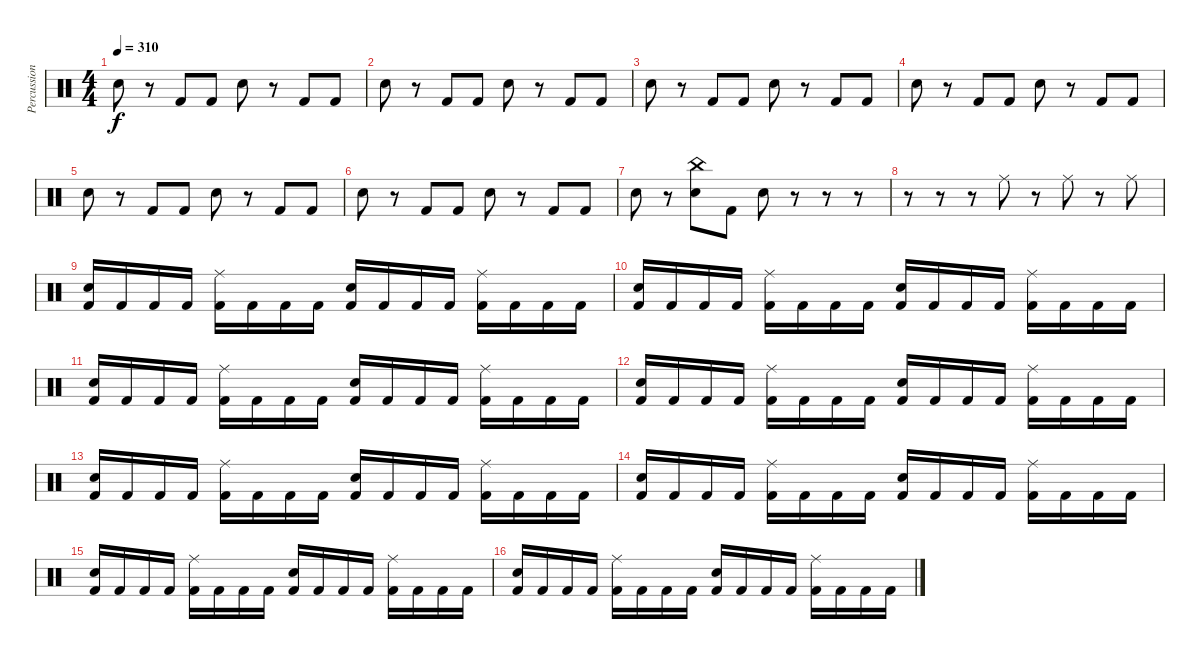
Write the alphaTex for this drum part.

\track ("Percussions" "Percussion") {instrument percussion}
\staff {score}
\articulation defaults
\ts (4 4)
\tempo 310
\clef neutral
\ks c "Snare (hit) 2".8{dy f}
r.8 "Kick (hit) 2".8 "Kick (hit) 2".8 "Snare (hit) 2".8 r.8 "Kick (hit) 2".8 "Kick (hit) 2".8 |
"Snare (hit) 2".8 r.8 "Kick (hit) 2".8 "Kick (hit) 2".8 "Snare (hit) 2".8 r.8 "Kick (hit) 2".8 "Kick (hit) 2".8 |
"Snare (hit) 2".8 r.8 "Kick (hit) 2".8 "Kick (hit) 2".8 "Snare (hit) 2".8 r.8 "Kick (hit) 2".8 "Kick (hit) 2".8 |
"Snare (hit) 2".8 r.8 "Kick (hit) 2".8 "Kick (hit) 2".8 "Snare (hit) 2".8 r.8 "Kick (hit) 2".8 "Kick (hit) 2".8 |
"Snare (hit) 2".8 r.8 "Kick (hit) 2".8 "Kick (hit) 2".8 "Snare (hit) 2".8 r.8 "Kick (hit) 2".8 "Kick (hit) 2".8 |
"Snare (hit) 2".8 r.8 "Kick (hit) 2".8 "Kick (hit) 2".8 "Snare (hit) 2".8 r.8 "Kick (hit) 2".8 "Kick (hit) 2".8 |
"Snare (hit) 2".8 r.8 ("China (hit)" "Snare (hit) 2").8 "Kick (hit) 2".8 "Snare (hit) 2".8 r.8 r.8 r.8 |
r.8 r.8 r.8 "Ride (middle)".8 r.8 "Ride (middle)".8 r.8 "Ride (middle)".8 |
("Snare (hit) 2" "Kick (hit) 2").16 "Kick (hit) 2".16 "Kick (hit) 2".16 "Kick (hit) 2".16 ("Ride (middle)" "Kick (hit) 2").16 "Kick (hit) 2".16 "Kick (hit) 2".16 "Kick (hit) 2".16 ("Snare (hit) 2" "Kick (hit) 2").16 "Kick (hit) 2".16 "Kick (hit) 2".16 "Kick (hit) 2".16 ("Ride (middle)" "Kick (hit) 2").16 "Kick (hit) 2".16 "Kick (hit) 2".16 "Kick (hit) 2".16 |
("Snare (hit) 2" "Kick (hit) 2").16 "Kick (hit) 2".16 "Kick (hit) 2".16 "Kick (hit) 2".16 ("Ride (middle)" "Kick (hit) 2").16 "Kick (hit) 2".16 "Kick (hit) 2".16 "Kick (hit) 2".16 ("Snare (hit) 2" "Kick (hit) 2").16 "Kick (hit) 2".16 "Kick (hit) 2".16 "Kick (hit) 2".16 ("Ride (middle)" "Kick (hit) 2").16 "Kick (hit) 2".16 "Kick (hit) 2".16 "Kick (hit) 2".16 |
("Snare (hit) 2" "Kick (hit) 2").16 "Kick (hit) 2".16 "Kick (hit) 2".16 "Kick (hit) 2".16 ("Ride (middle)" "Kick (hit) 2").16 "Kick (hit) 2".16 "Kick (hit) 2".16 "Kick (hit) 2".16 ("Snare (hit) 2" "Kick (hit) 2").16 "Kick (hit) 2".16 "Kick (hit) 2".16 "Kick (hit) 2".16 ("Ride (middle)" "Kick (hit) 2").16 "Kick (hit) 2".16 "Kick (hit) 2".16 "Kick (hit) 2".16 |
("Snare (hit) 2" "Kick (hit) 2").16 "Kick (hit) 2".16 "Kick (hit) 2".16 "Kick (hit) 2".16 ("Ride (middle)" "Kick (hit) 2").16 "Kick (hit) 2".16 "Kick (hit) 2".16 "Kick (hit) 2".16 ("Snare (hit) 2" "Kick (hit) 2").16 "Kick (hit) 2".16 "Kick (hit) 2".16 "Kick (hit) 2".16 ("Ride (middle)" "Kick (hit) 2").16 "Kick (hit) 2".16 "Kick (hit) 2".16 "Kick (hit) 2".16 |
("Snare (hit) 2" "Kick (hit) 2").16 "Kick (hit) 2".16 "Kick (hit) 2".16 "Kick (hit) 2".16 ("Ride (middle)" "Kick (hit) 2").16 "Kick (hit) 2".16 "Kick (hit) 2".16 "Kick (hit) 2".16 ("Snare (hit) 2" "Kick (hit) 2").16 "Kick (hit) 2".16 "Kick (hit) 2".16 "Kick (hit) 2".16 ("Ride (middle)" "Kick (hit) 2").16 "Kick (hit) 2".16 "Kick (hit) 2".16 "Kick (hit) 2".16 |
("Snare (hit) 2" "Kick (hit) 2").16 "Kick (hit) 2".16 "Kick (hit) 2".16 "Kick (hit) 2".16 ("Ride (middle)" "Kick (hit) 2").16 "Kick (hit) 2".16 "Kick (hit) 2".16 "Kick (hit) 2".16 ("Snare (hit) 2" "Kick (hit) 2").16 "Kick (hit) 2".16 "Kick (hit) 2".16 "Kick (hit) 2".16 ("Ride (middle)" "Kick (hit) 2").16 "Kick (hit) 2".16 "Kick (hit) 2".16 "Kick (hit) 2".16 |
("Snare (hit) 2" "Kick (hit) 2").16 "Kick (hit) 2".16 "Kick (hit) 2".16 "Kick (hit) 2".16 ("Ride (middle)" "Kick (hit) 2").16 "Kick (hit) 2".16 "Kick (hit) 2".16 "Kick (hit) 2".16 ("Snare (hit) 2" "Kick (hit) 2").16 "Kick (hit) 2".16 "Kick (hit) 2".16 "Kick (hit) 2".16 ("Ride (middle)" "Kick (hit) 2").16 "Kick (hit) 2".16 "Kick (hit) 2".16 "Kick (hit) 2".16 |
("Snare (hit) 2" "Kick (hit) 2").16 "Kick (hit) 2".16 "Kick (hit) 2".16 "Kick (hit) 2".16 ("Ride (middle)" "Kick (hit) 2").16 "Kick (hit) 2".16 "Kick (hit) 2".16 "Kick (hit) 2".16 ("Snare (hit) 2" "Kick (hit) 2").16 "Kick (hit) 2".16 "Kick (hit) 2".16 "Kick (hit) 2".16 ("Ride (middle)" "Kick (hit) 2").16 "Kick (hit) 2".16 "Kick (hit) 2".16 "Kick (hit) 2".16
